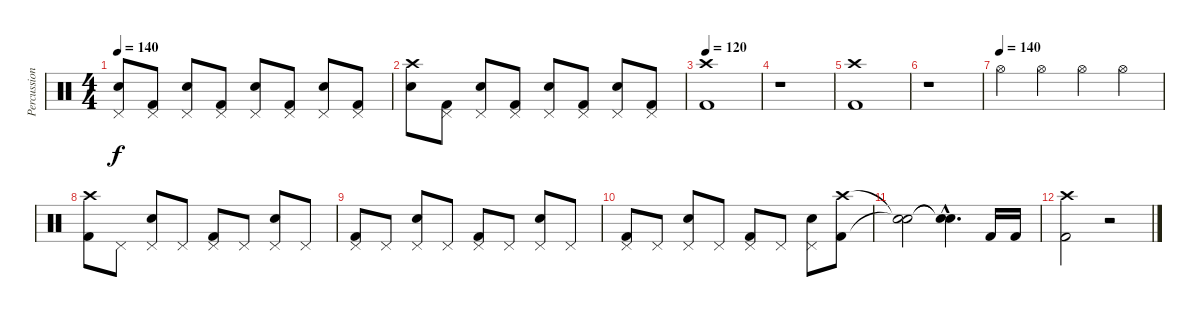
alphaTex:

\track ("Percussion" "Percussion") {instrument percussion}
\staff {score}
\articulation defaults
\ts (4 4)
\tempo 140
\clef neutral
\ks c
("Pedal Hi-Hat (hit)" "Snare (hit) 2").8{dy f} ("Pedal Hi-Hat (hit)" "Kick (hit) 2").8 ("Pedal Hi-Hat (hit)" "Snare (hit) 2").8 ("Pedal Hi-Hat (hit)" "Kick (hit) 2").8 ("Pedal Hi-Hat (hit)" "Snare (hit) 2").8 ("Pedal Hi-Hat (hit)" "Kick (hit) 2").8 ("Pedal Hi-Hat (hit)" "Snare (hit) 2").8 ("Pedal Hi-Hat (hit)" "Kick (hit) 2").8 |
("Crash high (hit)" "Snare (hit) 2").8 ("Pedal Hi-Hat (hit)" "Kick (hit) 2").8 ("Pedal Hi-Hat (hit)" "Snare (hit) 2").8 ("Pedal Hi-Hat (hit)" "Kick (hit) 2").8 ("Pedal Hi-Hat (hit)" "Snare (hit) 2").8 ("Pedal Hi-Hat (hit)" "Kick (hit) 2").8 ("Pedal Hi-Hat (hit)" "Snare (hit) 2").8 ("Pedal Hi-Hat (hit)" "Kick (hit) 2").8 |
\tempo 120
("Crash high (hit)" "Kick (hit) 2").1 |
r.1 |
("Crash high (hit)" "Kick (hit) 2").1 |
r.1 |
\tempo (140)
"Hi-Hat (open)".4 "Hi-Hat (open)".4 "Hi-Hat (open)".4 "Hi-Hat (open)".4 |
("Crash high (hit)" "Kick (hit) 2").8 "Pedal Hi-Hat (hit)".8 ("Pedal Hi-Hat (hit)" "Snare (hit) 2").8 "Pedal Hi-Hat (hit)".8 ("Pedal Hi-Hat (hit)" "Kick (hit) 2").8 "Pedal Hi-Hat (hit)".8 ("Pedal Hi-Hat (hit)" "Snare (hit) 2").8 "Pedal Hi-Hat (hit)".8 |
("Pedal Hi-Hat (hit)" "Kick (hit) 2").8 "Pedal Hi-Hat (hit)".8 ("Pedal Hi-Hat (hit)" "Snare (hit) 2").8 "Pedal Hi-Hat (hit)".8 ("Pedal Hi-Hat (hit)" "Kick (hit) 2").8 "Pedal Hi-Hat (hit)".8 ("Pedal Hi-Hat (hit)" "Snare (hit) 2").8 "Pedal Hi-Hat (hit)".8 |
("Pedal Hi-Hat (hit)" "Kick (hit) 2").8 "Pedal Hi-Hat (hit)".8 ("Pedal Hi-Hat (hit)" "Snare (hit) 2").8 "Pedal Hi-Hat (hit)".8 ("Pedal Hi-Hat (hit)" "Kick (hit) 2").8 "Pedal Hi-Hat (hit)".8 ("Pedal Hi-Hat (hit)" "Snare (hit) 2").8 ("Crash high (hit)" "Kick (hit) 2").8 |
("Snare (hit)"{t} "Snare (hit)"{t}).2 ("Snare (hit)"{hac t} "Snare (hit)"{hac t}).4{d} "Kick (hit) 2".16 "Kick (hit) 2".16 |
("Crash high (hit)" "Kick (hit) 2").2 r.2
